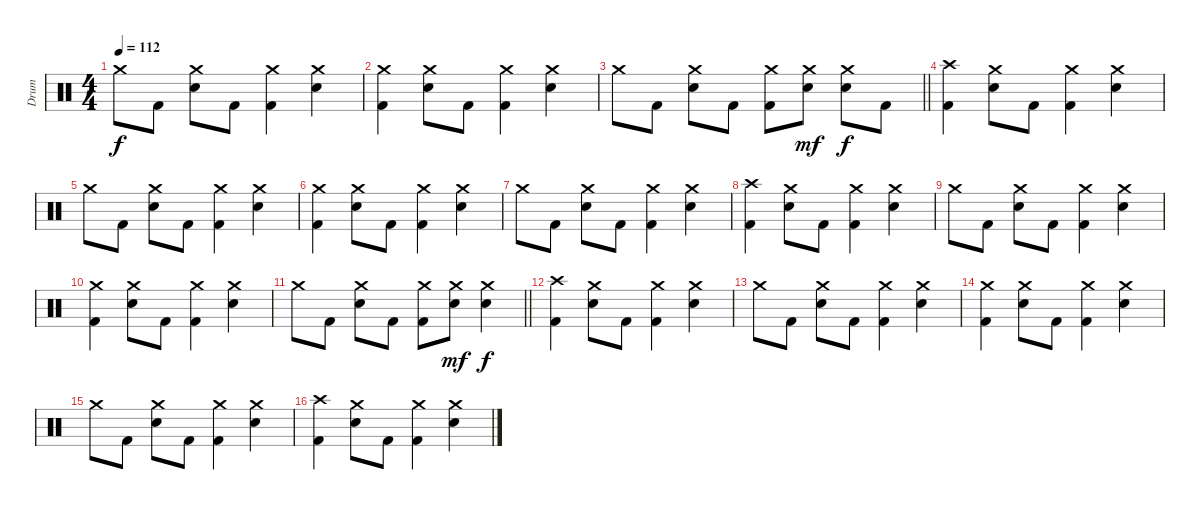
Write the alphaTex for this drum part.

\track ("Drum" "Drum") {instrument percussion}
\staff {score}
\articulation defaults
\ts (4 4)
\tempo 112
\clef neutral
\ks c "Crash medium (hit)".8{dy f} "Kick (hit) 2".8
("Crash medium (hit)" "Electric Snare (hit)").8 "Kick (hit) 2".8 ("Crash medium (hit)" "Kick (hit) 2").4 ("Crash medium (hit)" "Electric Snare (hit)").4 |
("Crash medium (hit)" "Kick (hit) 2").4 ("Crash medium (hit)" "Electric Snare (hit)").8 "Kick (hit) 2".8 ("Crash medium (hit)" "Kick (hit) 2").4 ("Crash medium (hit)" "Electric Snare (hit)").4 |
\barLineRight lightlight "Crash medium (hit)".8 "Kick (hit) 2".8
("Crash medium (hit)" "Electric Snare (hit)").8 "Kick (hit) 2".8 ("Crash medium (hit)" "Kick (hit) 2").8 ("Crash medium (hit)" "Electric Snare (hit)").8{dy mf} ("Crash medium (hit)" "Electric Snare (hit)").8{dy f} "Kick (hit) 2".8 |
\section ("" "")
("Crash high (hit)" "Kick (hit) 2").4 ("Crash medium (hit)" "Electric Snare (hit)").8 "Kick (hit) 2".8 ("Crash medium (hit)" "Kick (hit) 2").4 ("Crash medium (hit)" "Electric Snare (hit)").4 |
"Crash medium (hit)".8 "Kick (hit) 2".8 ("Crash medium (hit)" "Electric Snare (hit)").8 "Kick (hit) 2".8 ("Crash medium (hit)" "Kick (hit) 2").4 ("Crash medium (hit)" "Electric Snare (hit)").4 |
("Crash medium (hit)" "Kick (hit) 2").4 ("Crash medium (hit)" "Electric Snare (hit)").8 "Kick (hit) 2".8 ("Crash medium (hit)" "Kick (hit) 2").4 ("Crash medium (hit)" "Electric Snare (hit)").4 |
"Crash medium (hit)".8 "Kick (hit) 2".8 ("Crash medium (hit)" "Electric Snare (hit)").8 "Kick (hit) 2".8 ("Crash medium (hit)" "Kick (hit) 2").4 ("Crash medium (hit)" "Electric Snare (hit)").4 |
("Crash high (hit)" "Kick (hit) 2").4 ("Crash medium (hit)" "Electric Snare (hit)").8 "Kick (hit) 2".8 ("Crash medium (hit)" "Kick (hit) 2").4 ("Crash medium (hit)" "Electric Snare (hit)").4 |
"Crash medium (hit)".8 "Kick (hit) 2".8 ("Crash medium (hit)" "Electric Snare (hit)").8 "Kick (hit) 2".8 ("Crash medium (hit)" "Kick (hit) 2").4 ("Crash medium (hit)" "Electric Snare (hit)").4 |
("Crash medium (hit)" "Kick (hit) 2").4 ("Crash medium (hit)" "Electric Snare (hit)").8 "Kick (hit) 2".8 ("Crash medium (hit)" "Kick (hit) 2").4 ("Crash medium (hit)" "Electric Snare (hit)").4 |
\barLineRight lightlight "Crash medium (hit)".8 "Kick (hit) 2".8
("Crash medium (hit)" "Electric Snare (hit)").8 "Kick (hit) 2".8 ("Crash medium (hit)" "Kick (hit) 2").8 ("Crash medium (hit)" "Electric Snare (hit)").8{dy mf} ("Crash medium (hit)" "Electric Snare (hit)").4{dy f} |
\section ("" "")
("Crash high (hit)" "Kick (hit) 2").4 ("Crash medium (hit)" "Electric Snare (hit)").8 "Kick (hit) 2".8 ("Crash medium (hit)" "Kick (hit) 2").4 ("Crash medium (hit)" "Electric Snare (hit)").4 |
"Crash medium (hit)".8 "Kick (hit) 2".8 ("Crash medium (hit)" "Electric Snare (hit)").8 "Kick (hit) 2".8 ("Crash medium (hit)" "Kick (hit) 2").4 ("Crash medium (hit)" "Electric Snare (hit)").4 |
("Crash medium (hit)" "Kick (hit) 2").4 ("Crash medium (hit)" "Electric Snare (hit)").8 "Kick (hit) 2".8 ("Crash medium (hit)" "Kick (hit) 2").4 ("Crash medium (hit)" "Electric Snare (hit)").4 |
"Crash medium (hit)".8 "Kick (hit) 2".8 ("Crash medium (hit)" "Electric Snare (hit)").8 "Kick (hit) 2".8 ("Crash medium (hit)" "Kick (hit) 2").4 ("Crash medium (hit)" "Electric Snare (hit)").4 |
("Crash high (hit)" "Kick (hit) 2").4 ("Crash medium (hit)" "Electric Snare (hit)").8 "Kick (hit) 2".8 ("Crash medium (hit)" "Kick (hit) 2").4 ("Crash medium (hit)" "Electric Snare (hit)").4
